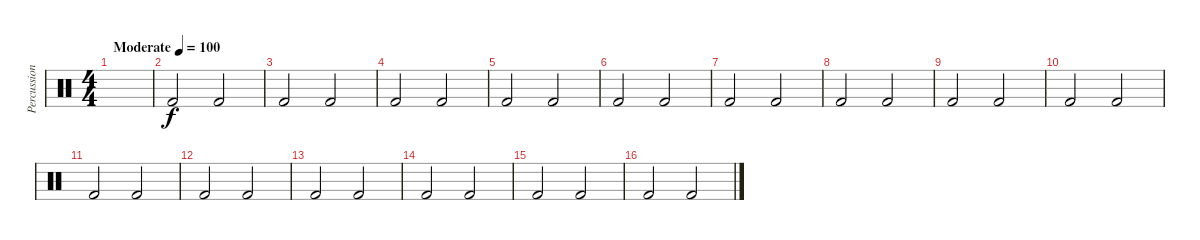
\track ("Percussion" "Percussion") {mute instrument percussion}
\staff {score}
\articulation defaults
\ts (4 4)
\tempo (100 "Moderate")
\clef neutral
\ks c
|
"Kick (hit) 2".2 "Kick (hit) 2".2 |
"Kick (hit) 2".2 "Kick (hit) 2".2 |
"Kick (hit) 2".2 "Kick (hit) 2".2 |
"Kick (hit) 2".2 "Kick (hit) 2".2 |
"Kick (hit) 2".2 "Kick (hit) 2".2 |
"Kick (hit) 2".2 "Kick (hit) 2".2 |
"Kick (hit) 2".2 "Kick (hit) 2".2 |
"Kick (hit) 2".2 "Kick (hit) 2".2 |
"Kick (hit) 2".2 "Kick (hit) 2".2 |
"Kick (hit) 2".2 "Kick (hit) 2".2 |
"Kick (hit) 2".2 "Kick (hit) 2".2 |
"Kick (hit) 2".2 "Kick (hit) 2".2 |
"Kick (hit) 2".2 "Kick (hit) 2".2 |
"Kick (hit) 2".2 "Kick (hit) 2".2 |
"Kick (hit) 2".2 "Kick (hit) 2".2
